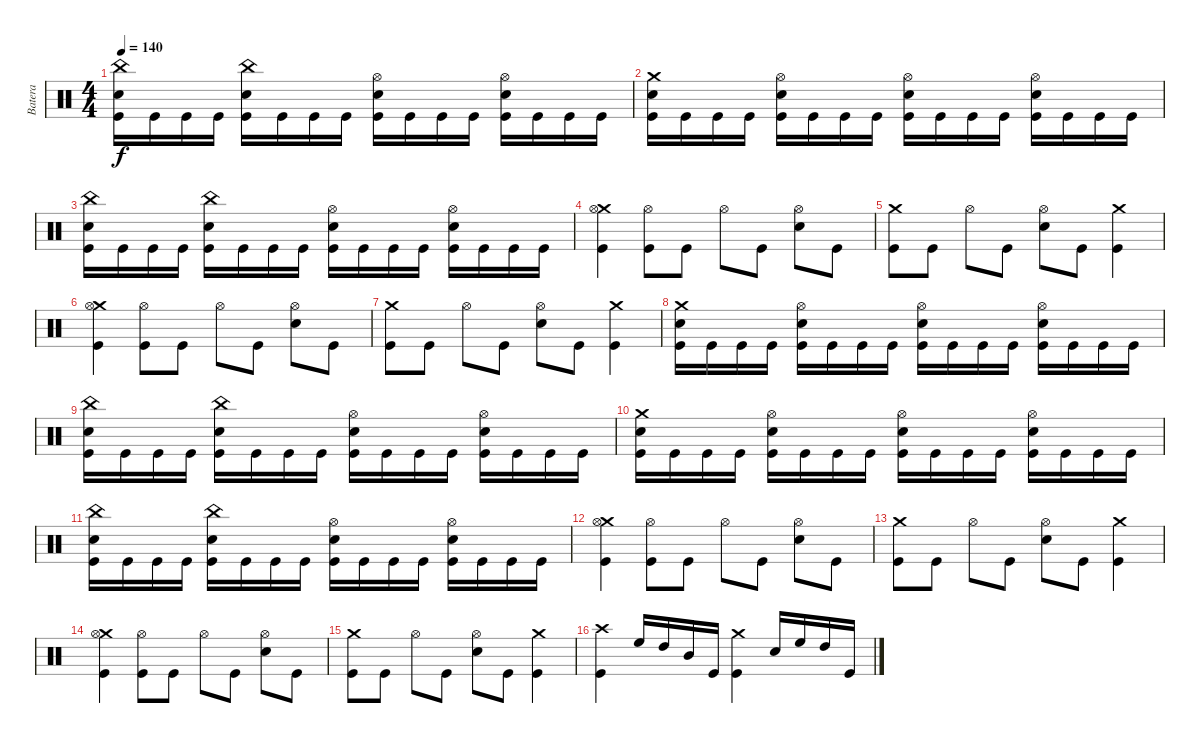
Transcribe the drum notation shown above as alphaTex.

\track ("Batera" "Batera") {instrument percussion}
\staff {score}
\articulation defaults
\ts (4 4)
\tempo 140
\clef neutral
\ks c
("China (hit)" "Snare (hit) 2" "Kick (hit)").16{dy f} "Kick (hit)".16 "Kick (hit)".16 "Kick (hit)".16 ("China (hit)" "Snare (hit) 2" "Kick (hit)").16 "Kick (hit)".16 "Kick (hit)".16 "Kick (hit)".16 ("Hi-Hat (open)" "Snare (hit) 2" "Kick (hit)").16 "Kick (hit)".16 "Kick (hit)".16 "Kick (hit)".16 ("Hi-Hat (open)" "Snare (hit) 2" "Kick (hit)").16 "Kick (hit)".16 "Kick (hit)".16 "Kick (hit)".16 |
("Crash medium (hit)" "Snare (hit) 2" "Kick (hit)").16 "Kick (hit)".16 "Kick (hit)".16 "Kick (hit)".16 ("Hi-Hat (open)" "Snare (hit) 2" "Kick (hit)").16 "Kick (hit)".16 "Kick (hit)".16 "Kick (hit)".16 ("Hi-Hat (open)" "Snare (hit) 2" "Kick (hit)").16 "Kick (hit)".16 "Kick (hit)".16 "Kick (hit)".16 ("Hi-Hat (open)" "Snare (hit) 2" "Kick (hit)").16 "Kick (hit)".16 "Kick (hit)".16 "Kick (hit)".16 |
("China (hit)" "Snare (hit) 2" "Kick (hit)").16 "Kick (hit)".16 "Kick (hit)".16 "Kick (hit)".16 ("China (hit)" "Snare (hit) 2" "Kick (hit)").16 "Kick (hit)".16 "Kick (hit)".16 "Kick (hit)".16 ("Hi-Hat (open)" "Snare (hit) 2" "Kick (hit)").16 "Kick (hit)".16 "Kick (hit)".16 "Kick (hit)".16 ("Hi-Hat (open)" "Snare (hit) 2" "Kick (hit)").16 "Kick (hit)".16 "Kick (hit)".16 "Kick (hit)".16 |
("Crash medium (hit)" "Hi-Hat (open)" "Kick (hit)").4 ("Hi-Hat (open)" "Kick (hit)").8 "Kick (hit)".8 "Hi-Hat (open)".8 "Kick (hit)".8 ("Hi-Hat (open)" "Snare (hit) 2").8 "Kick (hit)".8 |
("Crash medium (hit)" "Kick (hit)").8 "Kick (hit)".8 "Hi-Hat (open)".8 "Kick (hit)".8 ("Hi-Hat (open)" "Snare (hit) 2").8 "Kick (hit)".8 ("Crash medium (hit)" "Kick (hit)").4 |
("Crash medium (hit)" "Hi-Hat (open)" "Kick (hit)").4 ("Hi-Hat (open)" "Kick (hit)").8 "Kick (hit)".8 "Hi-Hat (open)".8 "Kick (hit)".8 ("Hi-Hat (open)" "Snare (hit) 2").8 "Kick (hit)".8 |
("Crash medium (hit)" "Kick (hit)").8 "Kick (hit)".8 "Hi-Hat (open)".8 "Kick (hit)".8 ("Hi-Hat (open)" "Snare (hit) 2").8 "Kick (hit)".8 ("Crash medium (hit)" "Kick (hit)").4 |
("Crash medium (hit)" "Snare (hit) 2" "Kick (hit)").16 "Kick (hit)".16 "Kick (hit)".16 "Kick (hit)".16 ("Hi-Hat (open)" "Snare (hit) 2" "Kick (hit)").16 "Kick (hit)".16 "Kick (hit)".16 "Kick (hit)".16 ("Hi-Hat (open)" "Snare (hit) 2" "Kick (hit)").16 "Kick (hit)".16 "Kick (hit)".16 "Kick (hit)".16 ("Hi-Hat (open)" "Snare (hit) 2" "Kick (hit)").16 "Kick (hit)".16 "Kick (hit)".16 "Kick (hit)".16 |
("China (hit)" "Snare (hit) 2" "Kick (hit)").16 "Kick (hit)".16 "Kick (hit)".16 "Kick (hit)".16 ("China (hit)" "Snare (hit) 2" "Kick (hit)").16 "Kick (hit)".16 "Kick (hit)".16 "Kick (hit)".16 ("Hi-Hat (open)" "Snare (hit) 2" "Kick (hit)").16 "Kick (hit)".16 "Kick (hit)".16 "Kick (hit)".16 ("Hi-Hat (open)" "Snare (hit) 2" "Kick (hit)").16 "Kick (hit)".16 "Kick (hit)".16 "Kick (hit)".16 |
("Crash medium (hit)" "Snare (hit) 2" "Kick (hit)").16 "Kick (hit)".16 "Kick (hit)".16 "Kick (hit)".16 ("Hi-Hat (open)" "Snare (hit) 2" "Kick (hit)").16 "Kick (hit)".16 "Kick (hit)".16 "Kick (hit)".16 ("Hi-Hat (open)" "Snare (hit) 2" "Kick (hit)").16 "Kick (hit)".16 "Kick (hit)".16 "Kick (hit)".16 ("Hi-Hat (open)" "Snare (hit) 2" "Kick (hit)").16 "Kick (hit)".16 "Kick (hit)".16 "Kick (hit)".16 |
("China (hit)" "Snare (hit) 2" "Kick (hit)").16 "Kick (hit)".16 "Kick (hit)".16 "Kick (hit)".16 ("China (hit)" "Snare (hit) 2" "Kick (hit)").16 "Kick (hit)".16 "Kick (hit)".16 "Kick (hit)".16 ("Hi-Hat (open)" "Snare (hit) 2" "Kick (hit)").16 "Kick (hit)".16 "Kick (hit)".16 "Kick (hit)".16 ("Hi-Hat (open)" "Snare (hit) 2" "Kick (hit)").16 "Kick (hit)".16 "Kick (hit)".16 "Kick (hit)".16 |
("Crash medium (hit)" "Hi-Hat (open)" "Kick (hit)").4 ("Hi-Hat (open)" "Kick (hit)").8 "Kick (hit)".8 "Hi-Hat (open)".8 "Kick (hit)".8 ("Hi-Hat (open)" "Snare (hit) 2").8 "Kick (hit)".8 |
("Crash medium (hit)" "Kick (hit)").8 "Kick (hit)".8 "Hi-Hat (open)".8 "Kick (hit)".8 ("Hi-Hat (open)" "Snare (hit) 2").8 "Kick (hit)".8 ("Crash medium (hit)" "Kick (hit)").4 |
("Crash medium (hit)" "Hi-Hat (open)" "Kick (hit)").4 ("Hi-Hat (open)" "Kick (hit)").8 "Kick (hit)".8 "Hi-Hat (open)".8 "Kick (hit)".8 ("Hi-Hat (open)" "Snare (hit) 2").8 "Kick (hit)".8 |
("Crash medium (hit)" "Kick (hit)").8 "Kick (hit)".8 "Hi-Hat (open)".8 "Kick (hit)".8 ("Hi-Hat (open)" "Snare (hit) 2").8 "Kick (hit)".8 ("Crash medium (hit)" "Kick (hit)").4 |
("Crash high (hit)" "Kick (hit)").4 "High Floor Tom (hit)".16 "High Tom (hit)".16 "Mid Tom (hit)".16 "Kick (hit)".16 ("Crash medium (hit)" "Kick (hit)").4 "Snare (hit) 2".16 "High Floor Tom (hit)".16 "High Tom (hit)".16 "Kick (hit)".16
